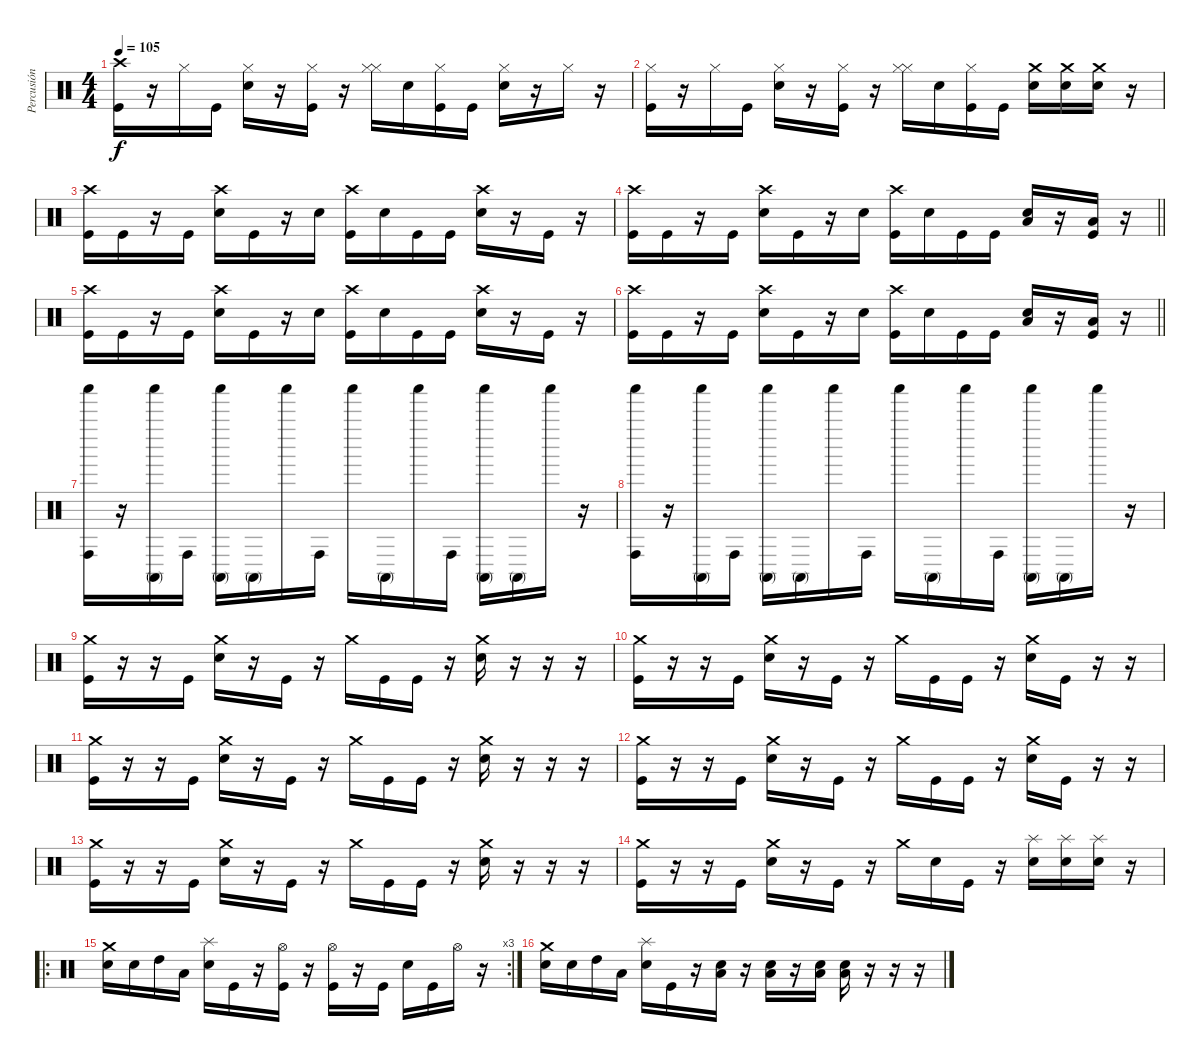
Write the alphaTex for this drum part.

\track ("Percusión" "Percusión") {instrument percussion}
\staff {score}
\articulation defaults
\ts (4 4)
\tempo 105
\clef neutral
\ks c
("Crash high (hit)" "Kick (hit)").16{dy f} r.16 "Hi-Hat (closed)".16 "Kick (hit)".16 ("Hi-Hat (closed)" "Electric Snare (hit)").16 r.16 ("Hi-Hat (closed)" "Kick (hit)").16 r.16 ("Hi-Hat (closed)" "Hi-Hat (closed)").16 "Electric Snare (hit)".16 ("Hi-Hat (closed)" "Kick (hit)").16 "Kick (hit)".16 ("Hi-Hat (closed)" "Electric Snare (hit)").16 r.16 "Hi-Hat (closed)".16 r.16 |
("Hi-Hat (closed)" "Kick (hit)").16 r.16 "Hi-Hat (closed)".16 "Kick (hit)".16 ("Hi-Hat (closed)" "Electric Snare (hit)").16 r.16 ("Hi-Hat (closed)" "Kick (hit)").16 r.16 ("Hi-Hat (closed)" "Hi-Hat (closed)").16 "Electric Snare (hit)".16 ("Hi-Hat (closed)" "Kick (hit)").16 "Kick (hit)".16 ("Crash medium (hit)" "Electric Snare (hit)").16 ("Crash medium (hit)" "Electric Snare (hit)").16 ("Crash medium (hit)" "Electric Snare (hit)").16 r.16 |
("Crash high (hit)" "Kick (hit)").16 "Kick (hit)".16 r.16 "Kick (hit)".16 ("Crash high (hit)" "Electric Snare (hit)").16 "Kick (hit)".16 r.16 "Electric Snare (hit)".16 ("Crash high (hit)" "Kick (hit)").16 "Electric Snare (hit)".16 "Kick (hit)".16 "Kick (hit)".16 ("Crash high (hit)" "Electric Snare (hit)").16 r.16 "Kick (hit)".16 r.16 |
\barLineRight lightlight
("Crash high (hit)" "Kick (hit)").16 "Kick (hit)".16 r.16 "Kick (hit)".16 ("Crash high (hit)" "Electric Snare (hit)").16 "Kick (hit)".16 r.16 "Electric Snare (hit)".16 ("Crash high (hit)" "Kick (hit)").16 "Electric Snare (hit)".16 "Kick (hit)".16 "Kick (hit)".16 ("Low Floor Tom (hit)" "Electric Snare (hit)").16 r.16 ("Low Floor Tom (hit)" "Kick (hit)").16 r.16 |
("Crash high (hit)" "Kick (hit)").16 "Kick (hit)".16 r.16 "Kick (hit)".16 ("Crash high (hit)" "Electric Snare (hit)").16 "Kick (hit)".16 r.16 "Electric Snare (hit)".16 ("Crash high (hit)" "Kick (hit)").16 "Electric Snare (hit)".16 "Kick (hit)".16 "Kick (hit)".16 ("Crash high (hit)" "Electric Snare (hit)").16 r.16 "Kick (hit)".16 r.16 |
\barLineRight lightlight
("Crash high (hit)" "Kick (hit)").16 "Kick (hit)".16 r.16 "Kick (hit)".16 ("Crash high (hit)" "Electric Snare (hit)").16 "Kick (hit)".16 r.16 "Electric Snare (hit)".16 ("Crash high (hit)" "Kick (hit)").16 "Electric Snare (hit)".16 "Kick (hit)".16 "Kick (hit)".16 ("Low Floor Tom (hit)" "Electric Snare (hit)").16 r.16 ("Low Floor Tom (hit)" "Kick (hit)").16 r.16 |
("Shaker (hit)" "Conga high (hit)").16{volume 16} r.16 ("Shaker (hit)" "Conga high (mute)").16 "Conga high (hit)".16 ("Shaker (hit)" "Conga high (mute)").16 "Conga high (mute)".16 "Shaker (hit)".16 "Conga high (hit)".16 "Shaker (hit)".16 "Conga high (mute)".16 "Shaker (hit)".16 "Conga high (hit)".16 ("Shaker (hit)" "Conga high (mute)").16 "Conga high (mute)".16 "Shaker (hit)".16 r.16 |
("Shaker (hit)" "Conga high (hit)").16{volume 16} r.16 ("Shaker (hit)" "Conga high (mute)").16 "Conga high (hit)".16 ("Shaker (hit)" "Conga high (mute)").16 "Conga high (mute)".16 "Shaker (hit)".16 "Conga high (hit)".16 "Shaker (hit)".16 "Conga high (mute)".16 "Shaker (hit)".16 "Conga high (hit)".16 ("Shaker (hit)" "Conga high (mute)").16 "Conga high (mute)".16 "Shaker (hit)".16 r.16 |
("Crash medium (hit)" "Kick (hit)").16{volume 13} r.16 r.16 "Kick (hit)".16 ("Crash medium (hit)" "Electric Snare (hit)").16 r.16 "Kick (hit)".16 r.16 "Crash medium (hit)".16 "Kick (hit)".16 "Kick (hit)".16 r.16 ("Crash medium (hit)" "Electric Snare (hit)").16 r.16 r.16 r.16 |
("Crash medium (hit)" "Kick (hit)").16 r.16 r.16 "Kick (hit)".16 ("Crash medium (hit)" "Electric Snare (hit)").16 r.16 "Kick (hit)".16 r.16 "Crash medium (hit)".16 "Kick (hit)".16 "Kick (hit)".16 r.16 ("Crash medium (hit)" "Electric Snare (hit)").16 "Kick (hit)".16 r.16 r.16 |
("Crash medium (hit)" "Kick (hit)").16 r.16 r.16 "Kick (hit)".16 ("Crash medium (hit)" "Electric Snare (hit)").16 r.16 "Kick (hit)".16 r.16 "Crash medium (hit)".16 "Kick (hit)".16 "Kick (hit)".16 r.16 ("Crash medium (hit)" "Electric Snare (hit)").16 r.16 r.16 r.16 |
("Crash medium (hit)" "Kick (hit)").16 r.16 r.16 "Kick (hit)".16 ("Crash medium (hit)" "Electric Snare (hit)").16 r.16 "Kick (hit)".16 r.16 "Crash medium (hit)".16 "Kick (hit)".16 "Kick (hit)".16 r.16 ("Crash medium (hit)" "Electric Snare (hit)").16 "Kick (hit)".16 r.16 r.16 |
("Crash medium (hit)" "Kick (hit)").16 r.16 r.16 "Kick (hit)".16 ("Crash medium (hit)" "Electric Snare (hit)").16 r.16 "Kick (hit)".16 r.16 "Crash medium (hit)".16 "Kick (hit)".16 "Kick (hit)".16 r.16 ("Crash medium (hit)" "Electric Snare (hit)").16 r.16 r.16 r.16 |
("Crash medium (hit)" "Kick (hit)").16 r.16 r.16 "Kick (hit)".16 ("Crash medium (hit)" "Electric Snare (hit)").16 r.16 "Kick (hit)".16 r.16 "Crash medium (hit)".16 "Electric Snare (hit)".16 "Kick (hit)".16 r.16 ("Splash (hit)" "Electric Snare (hit)").16 ("Splash (hit)" "Electric Snare (hit)").16 ("Splash (hit)" "Electric Snare (hit)").16 r.16 |
\ro
\rc 3
("Crash medium (hit)" "Electric Snare (hit)").16 "Electric Snare (hit)".16 "High Tom (hit)".16 "Low Floor Tom (hit)".16 ("Splash (hit)" "Electric Snare (hit)").16 "Kick (hit)".16 r.16 ("Kick (hit)" "Hi-Hat (open)").16 r.16 ("Kick (hit)" "Hi-Hat (open)").16 r.16 "Kick (hit)".16 "Electric Snare (hit)".16 "Kick (hit)".16 "Hi-Hat (open)".16 r.16 |
("Crash medium (hit)" "Electric Snare (hit)").16 "Electric Snare (hit)".16 "High Tom (hit)".16 "Low Floor Tom (hit)".16 ("Splash (hit)" "Electric Snare (hit)").16 "Kick (hit)".16 r.16 ("Low Floor Tom (hit)" "Electric Snare (hit)").16 r.16 ("Low Floor Tom (hit)" "Electric Snare (hit)").16 r.16 ("Low Floor Tom (hit)" "Electric Snare (hit)").16 ("Low Floor Tom (hit)" "Electric Snare (hit)").16 r.16 r.16 r.16
